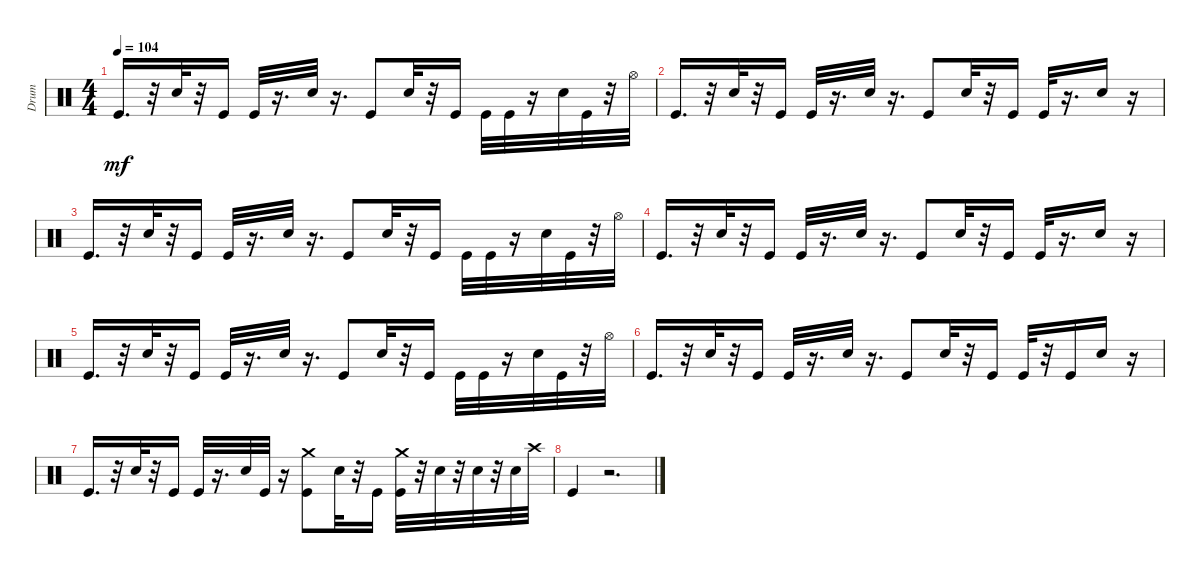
\track ("Drum" "Drum") {instrument percussion}
\staff {score}
\articulation defaults
\ts (4 4)
\tempo 104
\clef neutral
\ks c "Kick (hit)".16{d dy mf}
r.32 "Snare (hit) 2".32 r.32 "Kick (hit)".16 "Kick (hit)".32 r.16{d} "Snare (hit) 2".32 r.16{d} "Kick (hit)".8 "Snare (hit) 2".32 r.32 "Kick (hit)".16 "Kick (hit)".32 "Kick (hit)".32 r.16 "Snare (hit) 2".32 "Kick (hit)".32 r.32 "Hi-Hat (open)".32 |
"Kick (hit)".16{d} r.32 "Snare (hit) 2".32 r.32 "Kick (hit)".16 "Kick (hit)".32 r.16{d} "Snare (hit) 2".32 r.16{d} "Kick (hit)".8 "Snare (hit) 2".32 r.32 "Kick (hit)".16 "Kick (hit)".32 r.16{d} "Snare (hit) 2".16 r.16 |
"Kick (hit)".16{d} r.32 "Snare (hit) 2".32 r.32 "Kick (hit)".16 "Kick (hit)".32 r.16{d} "Snare (hit) 2".32 r.16{d} "Kick (hit)".8 "Snare (hit) 2".32 r.32 "Kick (hit)".16 "Kick (hit)".32 "Kick (hit)".32 r.16 "Snare (hit) 2".32 "Kick (hit)".32 r.32 "Hi-Hat (open)".32 |
"Kick (hit)".16{d} r.32 "Snare (hit) 2".32 r.32 "Kick (hit)".16 "Kick (hit)".32 r.16{d} "Snare (hit) 2".32 r.16{d} "Kick (hit)".8 "Snare (hit) 2".32 r.32 "Kick (hit)".16 "Kick (hit)".32 r.16{d} "Snare (hit) 2".16 r.16 |
"Kick (hit)".16{d} r.32 "Snare (hit) 2".32 r.32 "Kick (hit)".16 "Kick (hit)".32 r.16{d} "Snare (hit) 2".32 r.16{d} "Kick (hit)".8 "Snare (hit) 2".32 r.32 "Kick (hit)".16 "Kick (hit)".32 "Kick (hit)".32 r.16 "Snare (hit) 2".32 "Kick (hit)".32 r.32 "Hi-Hat (open)".32 |
"Kick (hit)".16{d} r.32 "Snare (hit) 2".32 r.32 "Kick (hit)".16 "Kick (hit)".32 r.16{d} "Snare (hit) 2".32 r.16{d} "Kick (hit)".8 "Snare (hit) 2".32 r.32 "Kick (hit)".16 "Kick (hit)".32 r.32 "Kick (hit)".16 "Snare (hit) 2".16 r.16 |
"Kick (hit)".16{d} r.32 "Snare (hit) 2".32 r.32 "Kick (hit)".16 "Kick (hit)".32 r.16{d} "Snare (hit) 2".32 "Kick (hit)".32 r.16 ("Crash medium (hit)" "Kick (hit)").8 "Snare (hit) 2".32 r.32 "Kick (hit)".16 ("Crash medium (hit)" "Kick (hit)").32 r.32 "Snare (hit) 2".32 r.32 "Snare (hit) 2".32 r.32 "Snare (hit) 2".32 "Crash high (hit)".32 |
"Kick (hit)".4 r.2{d}
